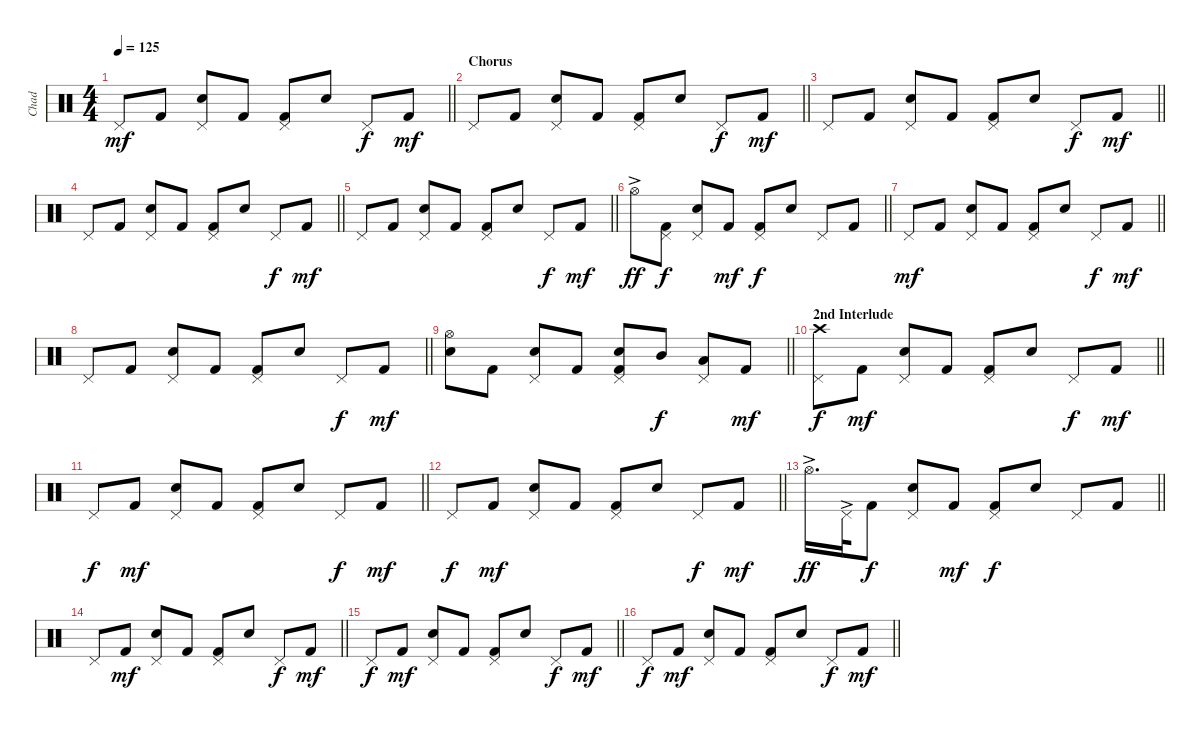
\track ("Chad" "Chad") {instrument percussion}
\staff {score}
\articulation defaults
\ts (4 4)
\tempo 125
\clef neutral
\barLineRight lightlight
\ks c "Pedal Hi-Hat (hit)".8{dy mf} "Kick (hit) 2".8
("Electric Snare (hit)" "Pedal Hi-Hat (hit)").8 "Kick (hit) 2".8 ("Kick (hit) 2" "Pedal Hi-Hat (hit)").8 "Electric Snare (hit)".8 "Pedal Hi-Hat (hit)".8{dy f} "Kick (hit) 2".8{dy mf} |
\section ("" "Chorus")
\barLineRight lightlight "Pedal Hi-Hat (hit)".8 "Kick (hit) 2".8
("Electric Snare (hit)" "Pedal Hi-Hat (hit)").8 "Kick (hit) 2".8 ("Kick (hit) 2" "Pedal Hi-Hat (hit)").8 "Electric Snare (hit)".8 "Pedal Hi-Hat (hit)".8{dy f} "Kick (hit) 2".8{dy mf} |
\barLineRight lightlight "Pedal Hi-Hat (hit)".8 "Kick (hit) 2".8
("Electric Snare (hit)" "Pedal Hi-Hat (hit)").8 "Kick (hit) 2".8 ("Kick (hit) 2" "Pedal Hi-Hat (hit)").8 "Electric Snare (hit)".8 "Pedal Hi-Hat (hit)".8{dy f} "Kick (hit) 2".8{dy mf} |
\barLineRight lightlight "Pedal Hi-Hat (hit)".8 "Kick (hit) 2".8
("Electric Snare (hit)" "Pedal Hi-Hat (hit)").8 "Kick (hit) 2".8 ("Kick (hit) 2" "Pedal Hi-Hat (hit)").8 "Electric Snare (hit)".8 "Pedal Hi-Hat (hit)".8{dy f} "Kick (hit) 2".8{dy mf} |
\barLineRight lightlight "Pedal Hi-Hat (hit)".8 "Kick (hit) 2".8
("Electric Snare (hit)" "Pedal Hi-Hat (hit)").8 "Kick (hit) 2".8 ("Kick (hit) 2" "Pedal Hi-Hat (hit)").8 "Electric Snare (hit)".8 "Pedal Hi-Hat (hit)".8{dy f} "Kick (hit) 2".8{dy mf} |
\barLineRight lightlight "Hi-Hat (open)"{ac}.8{dy ff}
("Kick (hit) 2" "Pedal Hi-Hat (hit)").8{dy f} ("Electric Snare (hit)" "Pedal Hi-Hat (hit)").8 "Kick (hit) 2".8{dy mf} ("Kick (hit) 2" "Pedal Hi-Hat (hit)").8{dy f} "Electric Snare (hit)".8 "Pedal Hi-Hat (hit)".8 "Kick (hit) 2".8 |
\barLineRight lightlight "Pedal Hi-Hat (hit)".8{dy mf} "Kick (hit) 2".8
("Electric Snare (hit)" "Pedal Hi-Hat (hit)").8 "Kick (hit) 2".8 ("Kick (hit) 2" "Pedal Hi-Hat (hit)").8 "Electric Snare (hit)".8 "Pedal Hi-Hat (hit)".8{dy f} "Kick (hit) 2".8{dy mf} |
\barLineRight lightlight "Pedal Hi-Hat (hit)".8 "Kick (hit) 2".8
("Electric Snare (hit)" "Pedal Hi-Hat (hit)").8 "Kick (hit) 2".8 ("Kick (hit) 2" "Pedal Hi-Hat (hit)").8 "Electric Snare (hit)".8 "Pedal Hi-Hat (hit)".8{dy f} "Kick (hit) 2".8{dy mf} |
\barLineRight lightlight
("Electric Snare (hit)" "Hi-Hat (open)").8 "Kick (hit) 2".8 ("Electric Snare (hit)" "Pedal Hi-Hat (hit)").8 "Kick (hit) 2".8 ("Kick (hit) 2" "Electric Snare (hit)" "Pedal Hi-Hat (hit)").8 "Mid Tom (hit)".8{dy f} ("Low Tom (hit)" "Pedal Hi-Hat (hit)").8 "Kick (hit) 2".8{dy mf} |
\section ("" "2nd Interlude")
\barLineRight lightlight
("Crash high (hit)" "Pedal Hi-Hat (hit)").8{dy f} "Kick (hit) 2".8{dy mf} ("Electric Snare (hit)" "Pedal Hi-Hat (hit)").8 "Kick (hit) 2".8 ("Kick (hit) 2" "Pedal Hi-Hat (hit)").8 "Electric Snare (hit)".8 "Pedal Hi-Hat (hit)".8{dy f} "Kick (hit) 2".8{dy mf} |
\barLineRight lightlight "Pedal Hi-Hat (hit)".8{dy f} "Kick (hit) 2".8{dy mf}
("Electric Snare (hit)" "Pedal Hi-Hat (hit)").8 "Kick (hit) 2".8 ("Kick (hit) 2" "Pedal Hi-Hat (hit)").8 "Electric Snare (hit)".8 "Pedal Hi-Hat (hit)".8{dy f} "Kick (hit) 2".8{dy mf} |
\barLineRight lightlight "Pedal Hi-Hat (hit)".8{dy f} "Kick (hit) 2".8{dy mf}
("Electric Snare (hit)" "Pedal Hi-Hat (hit)").8 "Kick (hit) 2".8 ("Kick (hit) 2" "Pedal Hi-Hat (hit)").8 "Electric Snare (hit)".8 "Pedal Hi-Hat (hit)".8{dy f} "Kick (hit) 2".8{dy mf} |
\barLineRight lightlight "Hi-Hat (open)"{ac}.16{d dy ff} "Pedal Hi-Hat (hit)"{ac}.32 "Kick (hit) 2".8{dy f}
("Electric Snare (hit)" "Pedal Hi-Hat (hit)").8 "Kick (hit) 2".8{dy mf} ("Kick (hit) 2" "Pedal Hi-Hat (hit)").8{dy f} "Electric Snare (hit)".8 "Pedal Hi-Hat (hit)".8 "Kick (hit) 2".8 |
\barLineRight lightlight "Pedal Hi-Hat (hit)".8 "Kick (hit) 2".8{dy mf}
("Electric Snare (hit)" "Pedal Hi-Hat (hit)").8 "Kick (hit) 2".8 ("Kick (hit) 2" "Pedal Hi-Hat (hit)").8 "Electric Snare (hit)".8 "Pedal Hi-Hat (hit)".8{dy f} "Kick (hit) 2".8{dy mf} |
\barLineRight lightlight "Pedal Hi-Hat (hit)".8{dy f} "Kick (hit) 2".8{dy mf}
("Electric Snare (hit)" "Pedal Hi-Hat (hit)").8 "Kick (hit) 2".8 ("Kick (hit) 2" "Pedal Hi-Hat (hit)").8 "Electric Snare (hit)".8 "Pedal Hi-Hat (hit)".8{dy f} "Kick (hit) 2".8{dy mf} |
\barLineRight lightlight "Pedal Hi-Hat (hit)".8{dy f} "Kick (hit) 2".8{dy mf}
("Electric Snare (hit)" "Pedal Hi-Hat (hit)").8 "Kick (hit) 2".8 ("Kick (hit) 2" "Pedal Hi-Hat (hit)").8 "Electric Snare (hit)".8 "Pedal Hi-Hat (hit)".8{dy f} "Kick (hit) 2".8{dy mf}
